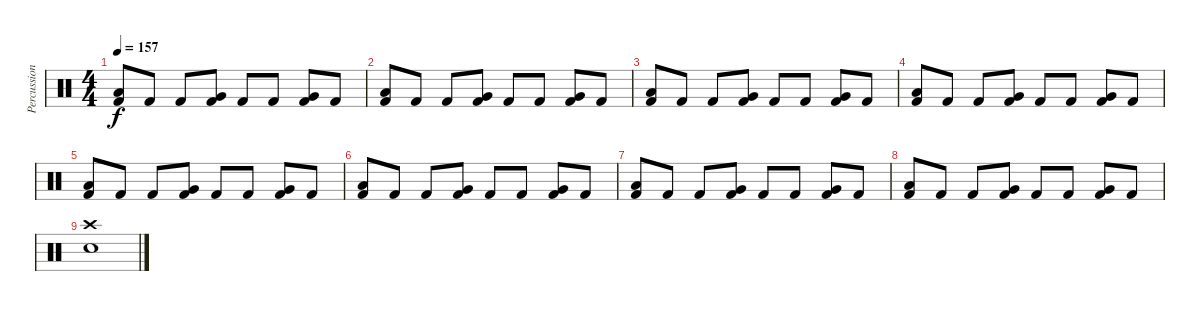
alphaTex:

\track ("Percussion" "Percussion") {instrument percussion}
\staff {score}
\articulation defaults
\ts (4 4)
\tempo 157
\clef neutral
\ks c
("Low Floor Tom (hit)" "Kick (hit) 2").8{dy f} "Kick (hit) 2".8 "Kick (hit) 2".8 ("Very Low Tom (hit)" "Kick (hit) 2").8 "Kick (hit) 2".8 "Kick (hit) 2".8 ("Very Low Tom (hit)" "Kick (hit) 2").8 "Kick (hit) 2".8 |
("Low Floor Tom (hit)" "Kick (hit) 2").8 "Kick (hit) 2".8 "Kick (hit) 2".8 ("Very Low Tom (hit)" "Kick (hit) 2").8 "Kick (hit) 2".8 "Kick (hit) 2".8 ("Very Low Tom (hit)" "Kick (hit) 2").8 "Kick (hit) 2".8 |
("Low Floor Tom (hit)" "Kick (hit) 2").8 "Kick (hit) 2".8 "Kick (hit) 2".8 ("Very Low Tom (hit)" "Kick (hit) 2").8 "Kick (hit) 2".8 "Kick (hit) 2".8 ("Very Low Tom (hit)" "Kick (hit) 2").8 "Kick (hit) 2".8 |
("Low Floor Tom (hit)" "Kick (hit) 2").8 "Kick (hit) 2".8 "Kick (hit) 2".8 ("Very Low Tom (hit)" "Kick (hit) 2").8 "Kick (hit) 2".8 "Kick (hit) 2".8 ("Very Low Tom (hit)" "Kick (hit) 2").8 "Kick (hit) 2".8 |
("Low Floor Tom (hit)" "Kick (hit) 2").8 "Kick (hit) 2".8 "Kick (hit) 2".8 ("Very Low Tom (hit)" "Kick (hit) 2").8 "Kick (hit) 2".8 "Kick (hit) 2".8 ("Very Low Tom (hit)" "Kick (hit) 2").8 "Kick (hit) 2".8 |
("Low Floor Tom (hit)" "Kick (hit) 2").8 "Kick (hit) 2".8 "Kick (hit) 2".8 ("Very Low Tom (hit)" "Kick (hit) 2").8 "Kick (hit) 2".8 "Kick (hit) 2".8 ("Very Low Tom (hit)" "Kick (hit) 2").8 "Kick (hit) 2".8 |
("Low Floor Tom (hit)" "Kick (hit) 2").8 "Kick (hit) 2".8 "Kick (hit) 2".8 ("Very Low Tom (hit)" "Kick (hit) 2").8 "Kick (hit) 2".8 "Kick (hit) 2".8 ("Very Low Tom (hit)" "Kick (hit) 2").8 "Kick (hit) 2".8 |
("Low Floor Tom (hit)" "Kick (hit) 2").8 "Kick (hit) 2".8 "Kick (hit) 2".8 ("Very Low Tom (hit)" "Kick (hit) 2").8 "Kick (hit) 2".8 "Kick (hit) 2".8 ("Very Low Tom (hit)" "Kick (hit) 2").8 "Kick (hit) 2".8 |
("Snare (hit) 2" "Crash high (hit)").1
